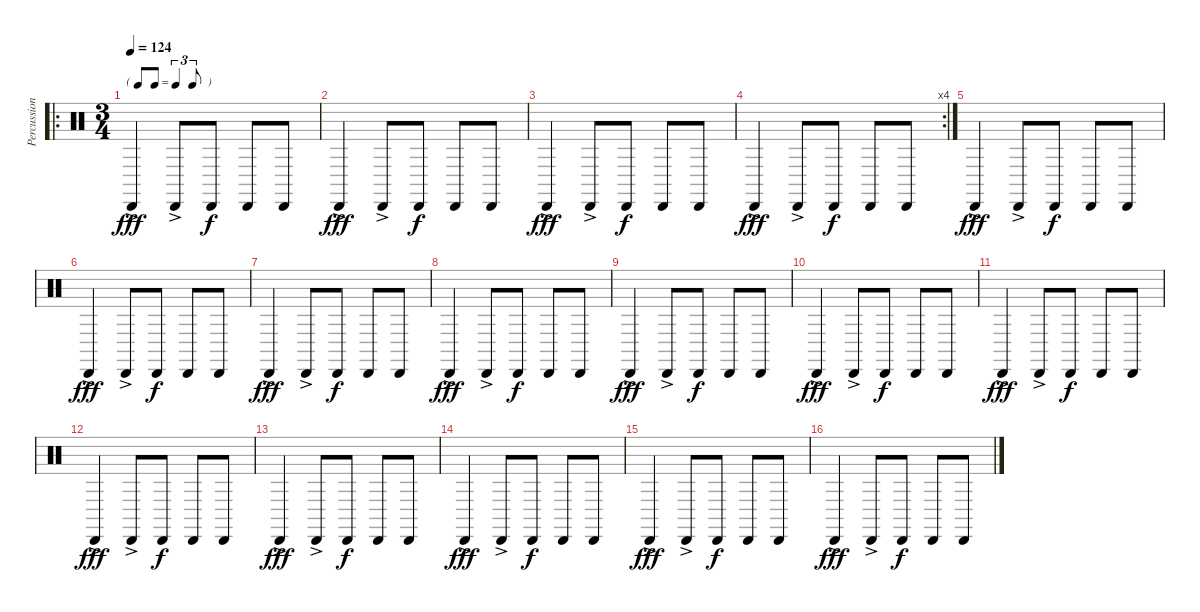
\track ("Percussion" "Percussion") {instrument percussion}
\staff {score}
\articulation defaults
\ro
\ts (3 4)
\tf triplet8th
\tempo 124
\clef neutral
\ks c "Cabasa (hit)"{ac}.4{dy fff} "Cabasa (hit)"{ac}.8 "Cabasa (hit)".8{dy f} "Cabasa (hit)".8 "Cabasa (hit)".8
|
"Cabasa (hit)"{ac}.4{dy fff} "Cabasa (hit)"{ac}.8 "Cabasa (hit)".8{dy f} "Cabasa (hit)".8 "Cabasa (hit)".8 |
"Cabasa (hit)"{ac}.4{dy fff} "Cabasa (hit)"{ac}.8 "Cabasa (hit)".8{dy f} "Cabasa (hit)".8 "Cabasa (hit)".8 |
\rc 4 "Cabasa (hit)"{ac}.4{dy fff} "Cabasa (hit)"{ac}.8 "Cabasa (hit)".8{dy f} "Cabasa (hit)".8 "Cabasa (hit)".8
|
"Cabasa (hit)"{ac}.4{dy fff} "Cabasa (hit)"{ac}.8 "Cabasa (hit)".8{dy f} "Cabasa (hit)".8 "Cabasa (hit)".8 |
"Cabasa (hit)"{ac}.4{dy fff} "Cabasa (hit)"{ac}.8 "Cabasa (hit)".8{dy f} "Cabasa (hit)".8 "Cabasa (hit)".8 |
"Cabasa (hit)"{ac}.4{dy fff} "Cabasa (hit)"{ac}.8 "Cabasa (hit)".8{dy f} "Cabasa (hit)".8 "Cabasa (hit)".8 |
"Cabasa (hit)"{ac}.4{dy fff} "Cabasa (hit)"{ac}.8 "Cabasa (hit)".8{dy f} "Cabasa (hit)".8 "Cabasa (hit)".8 |
"Cabasa (hit)"{ac}.4{dy fff} "Cabasa (hit)"{ac}.8 "Cabasa (hit)".8{dy f} "Cabasa (hit)".8 "Cabasa (hit)".8 |
"Cabasa (hit)"{ac}.4{dy fff} "Cabasa (hit)"{ac}.8 "Cabasa (hit)".8{dy f} "Cabasa (hit)".8 "Cabasa (hit)".8 |
"Cabasa (hit)"{ac}.4{dy fff} "Cabasa (hit)"{ac}.8 "Cabasa (hit)".8{dy f} "Cabasa (hit)".8 "Cabasa (hit)".8 |
"Cabasa (hit)"{ac}.4{dy fff} "Cabasa (hit)"{ac}.8 "Cabasa (hit)".8{dy f} "Cabasa (hit)".8 "Cabasa (hit)".8 |
"Cabasa (hit)"{ac}.4{dy fff} "Cabasa (hit)"{ac}.8 "Cabasa (hit)".8{dy f} "Cabasa (hit)".8 "Cabasa (hit)".8 |
"Cabasa (hit)"{ac}.4{dy fff} "Cabasa (hit)"{ac}.8 "Cabasa (hit)".8{dy f} "Cabasa (hit)".8 "Cabasa (hit)".8 |
"Cabasa (hit)"{ac}.4{dy fff} "Cabasa (hit)"{ac}.8 "Cabasa (hit)".8{dy f} "Cabasa (hit)".8 "Cabasa (hit)".8 |
"Cabasa (hit)"{ac}.4{dy fff} "Cabasa (hit)"{ac}.8 "Cabasa (hit)".8{dy f} "Cabasa (hit)".8 "Cabasa (hit)".8
